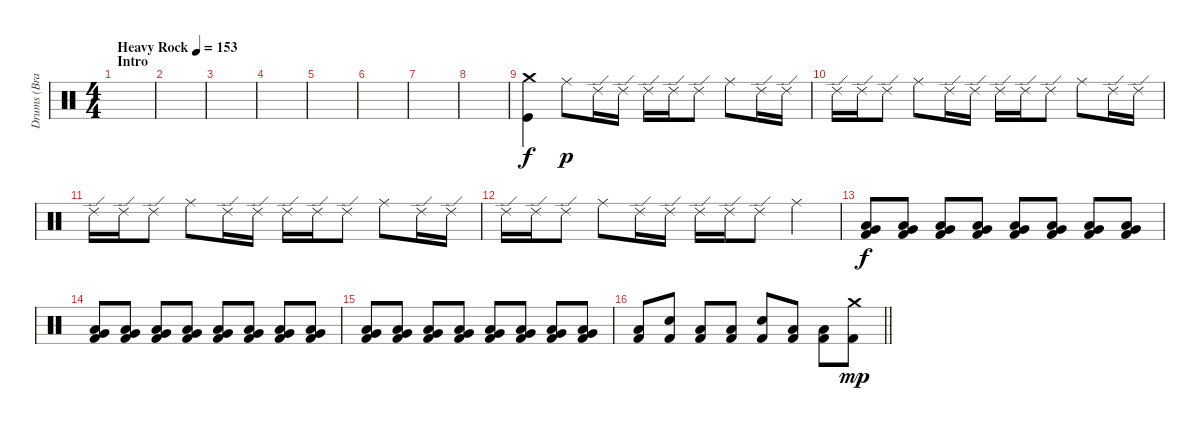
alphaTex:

\track ("Drums (Brandon Saller)" "Drums (Bra") {instrument percussion}
\staff {score}
\articulation defaults
\ts (4 4)
\section ("" "Intro")
\tempo (153 "Heavy Rock")
\clef neutral
\ks c
|
|
|
|
|
|
|
|
("Crash medium (hit)" "Kick (hit)").4 "Ride (middle)".8{dy p} "Ride (edge) 2".16 "Ride (edge) 2".16 "Ride (edge) 2".16 "Ride (edge) 2".16 "Ride (edge) 2".8 "Ride (middle)".8 "Ride (edge) 2".16 "Ride (edge) 2".16 |
"Ride (edge) 2".16 "Ride (edge) 2".16 "Ride (edge) 2".8 "Ride (middle)".8 "Ride (edge) 2".16 "Ride (edge) 2".16 "Ride (edge) 2".16 "Ride (edge) 2".16 "Ride (edge) 2".8 "Ride (middle)".8 "Ride (edge) 2".16 "Ride (edge) 2".16 |
"Ride (edge) 2".16 "Ride (edge) 2".16 "Ride (edge) 2".8 "Ride (middle)".8 "Ride (edge) 2".16 "Ride (edge) 2".16 "Ride (edge) 2".16 "Ride (edge) 2".16 "Ride (edge) 2".8 "Ride (middle)".8 "Ride (edge) 2".16 "Ride (edge) 2".16 |
"Ride (edge) 2".16 "Ride (edge) 2".16 "Ride (edge) 2".8 "Ride (middle)".8 "Ride (edge) 2".16 "Ride (edge) 2".16 "Ride (edge) 2".16 "Ride (edge) 2".16 "Ride (edge) 2".8 "Ride (middle)".4 |
("Very Low Tom (hit)" "Low Floor Tom (hit)" "Kick (hit) 2").8{dy f} ("Very Low Tom (hit)" "Low Floor Tom (hit)" "Kick (hit) 2").8 ("Very Low Tom (hit)" "Low Floor Tom (hit)" "Kick (hit) 2").8 ("Very Low Tom (hit)" "Low Floor Tom (hit)" "Kick (hit) 2").8 ("Very Low Tom (hit)" "Low Floor Tom (hit)" "Kick (hit) 2").8 ("Very Low Tom (hit)" "Low Floor Tom (hit)" "Kick (hit) 2").8 ("Very Low Tom (hit)" "Low Floor Tom (hit)" "Kick (hit) 2").8 ("Very Low Tom (hit)" "Low Floor Tom (hit)" "Kick (hit) 2").8 |
("Very Low Tom (hit)" "Low Floor Tom (hit)" "Kick (hit) 2").8 ("Very Low Tom (hit)" "Low Floor Tom (hit)" "Kick (hit) 2").8 ("Very Low Tom (hit)" "Low Floor Tom (hit)" "Kick (hit) 2").8 ("Very Low Tom (hit)" "Low Floor Tom (hit)" "Kick (hit) 2").8 ("Very Low Tom (hit)" "Low Floor Tom (hit)" "Kick (hit) 2").8 ("Very Low Tom (hit)" "Low Floor Tom (hit)" "Kick (hit) 2").8 ("Very Low Tom (hit)" "Low Floor Tom (hit)" "Kick (hit) 2").8 ("Very Low Tom (hit)" "Low Floor Tom (hit)" "Kick (hit) 2").8 |
("Very Low Tom (hit)" "Low Floor Tom (hit)" "Kick (hit) 2").8 ("Very Low Tom (hit)" "Low Floor Tom (hit)" "Kick (hit) 2").8 ("Very Low Tom (hit)" "Low Floor Tom (hit)" "Kick (hit) 2").8 ("Very Low Tom (hit)" "Low Floor Tom (hit)" "Kick (hit) 2").8 ("Very Low Tom (hit)" "Low Floor Tom (hit)" "Kick (hit) 2").8 ("Very Low Tom (hit)" "Low Floor Tom (hit)" "Kick (hit) 2").8 ("Very Low Tom (hit)" "Low Floor Tom (hit)" "Kick (hit) 2").8 ("Very Low Tom (hit)" "Low Floor Tom (hit)" "Kick (hit) 2").8 |
\barLineRight lightlight
("Low Floor Tom (hit)" "Kick (hit) 2").8 ("Snare (hit) 2" "Kick (hit) 2").8 ("Low Floor Tom (hit)" "Kick (hit) 2").8 ("Low Floor Tom (hit)" "Kick (hit) 2").8 ("Snare (hit) 2" "Kick (hit) 2").8 ("Low Floor Tom (hit)" "Kick (hit) 2").8 ("Low Floor Tom (hit)" "Kick (hit) 2").8 ("Crash medium (hit)" "Kick (hit) 2").8{dy mp}
